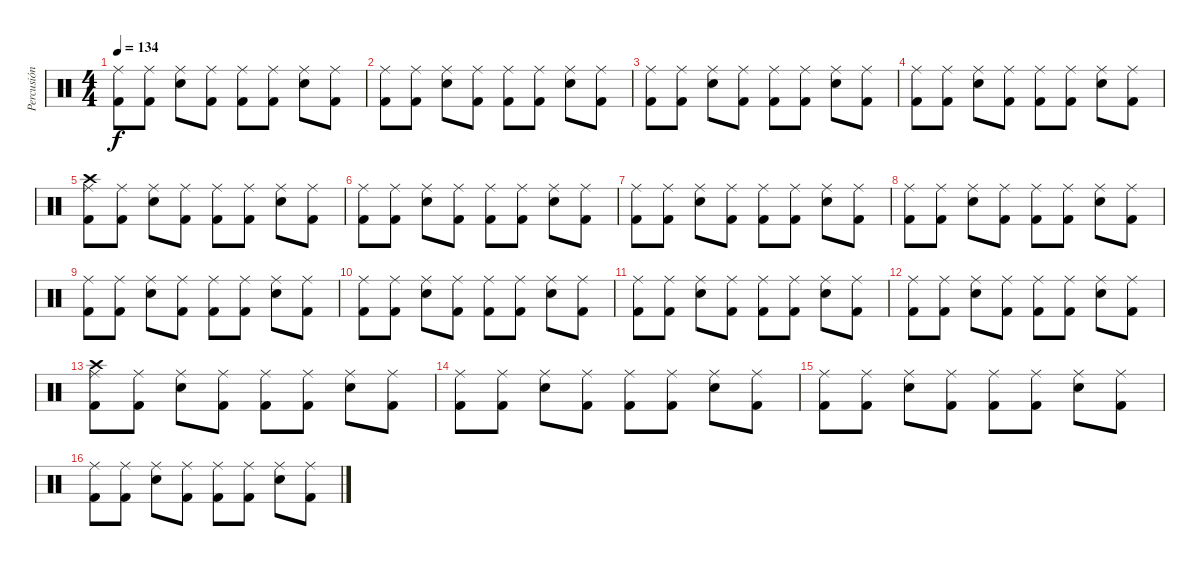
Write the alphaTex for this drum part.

\track ("Percusión" "Percusión") {instrument percussion}
\staff {score}
\articulation defaults
\ts (4 4)
\tempo 134
\clef neutral
\ks c
("Ride (middle)" "Kick (hit) 2").8{dy f} ("Ride (middle)" "Kick (hit) 2").8 ("Ride (middle)" "Snare (hit) 2").8 ("Ride (middle)" "Kick (hit) 2").8 ("Ride (middle)" "Kick (hit) 2").8 ("Ride (middle)" "Kick (hit) 2").8 ("Ride (middle)" "Snare (hit) 2").8 ("Ride (middle)" "Kick (hit) 2").8 |
("Ride (middle)" "Kick (hit) 2").8 ("Ride (middle)" "Kick (hit) 2").8 ("Ride (middle)" "Snare (hit) 2").8 ("Ride (middle)" "Kick (hit) 2").8 ("Ride (middle)" "Kick (hit) 2").8 ("Ride (middle)" "Kick (hit) 2").8 ("Ride (middle)" "Snare (hit) 2").8 ("Ride (middle)" "Kick (hit) 2").8 |
("Ride (middle)" "Kick (hit) 2").8 ("Ride (middle)" "Kick (hit) 2").8 ("Ride (middle)" "Snare (hit) 2").8 ("Ride (middle)" "Kick (hit) 2").8 ("Ride (middle)" "Kick (hit) 2").8 ("Ride (middle)" "Kick (hit) 2").8 ("Ride (middle)" "Snare (hit) 2").8 ("Ride (middle)" "Kick (hit) 2").8 |
("Ride (middle)" "Kick (hit) 2").8 ("Ride (middle)" "Kick (hit) 2").8 ("Ride (middle)" "Snare (hit) 2").8 ("Ride (middle)" "Kick (hit) 2").8 ("Ride (middle)" "Kick (hit) 2").8 ("Ride (middle)" "Kick (hit) 2").8 ("Ride (middle)" "Snare (hit) 2").8 ("Ride (middle)" "Kick (hit) 2").8 |
("Crash high (hit)" "Ride (middle)" "Kick (hit) 2").8 ("Ride (middle)" "Kick (hit) 2").8 ("Ride (middle)" "Snare (hit) 2").8 ("Ride (middle)" "Kick (hit) 2").8 ("Ride (middle)" "Kick (hit) 2").8 ("Ride (middle)" "Kick (hit) 2").8 ("Ride (middle)" "Snare (hit) 2").8 ("Ride (middle)" "Kick (hit) 2").8 |
("Ride (middle)" "Kick (hit) 2").8 ("Ride (middle)" "Kick (hit) 2").8 ("Ride (middle)" "Snare (hit) 2").8 ("Ride (middle)" "Kick (hit) 2").8 ("Ride (middle)" "Kick (hit) 2").8 ("Ride (middle)" "Kick (hit) 2").8 ("Ride (middle)" "Snare (hit) 2").8 ("Ride (middle)" "Kick (hit) 2").8 |
("Ride (middle)" "Kick (hit) 2").8 ("Ride (middle)" "Kick (hit) 2").8 ("Ride (middle)" "Snare (hit) 2").8 ("Ride (middle)" "Kick (hit) 2").8 ("Ride (middle)" "Kick (hit) 2").8 ("Ride (middle)" "Kick (hit) 2").8 ("Ride (middle)" "Snare (hit) 2").8 ("Ride (middle)" "Kick (hit) 2").8 |
("Ride (middle)" "Kick (hit) 2").8 ("Ride (middle)" "Kick (hit) 2").8 ("Ride (middle)" "Snare (hit) 2").8 ("Ride (middle)" "Kick (hit) 2").8 ("Ride (middle)" "Kick (hit) 2").8 ("Ride (middle)" "Kick (hit) 2").8 ("Ride (middle)" "Snare (hit) 2").8 ("Ride (middle)" "Kick (hit) 2").8 |
("Ride (middle)" "Kick (hit) 2").8 ("Ride (middle)" "Kick (hit) 2").8 ("Ride (middle)" "Snare (hit) 2").8 ("Ride (middle)" "Kick (hit) 2").8 ("Ride (middle)" "Kick (hit) 2").8 ("Ride (middle)" "Kick (hit) 2").8 ("Ride (middle)" "Snare (hit) 2").8 ("Ride (middle)" "Kick (hit) 2").8 |
("Ride (middle)" "Kick (hit) 2").8 ("Ride (middle)" "Kick (hit) 2").8 ("Ride (middle)" "Snare (hit) 2").8 ("Ride (middle)" "Kick (hit) 2").8 ("Ride (middle)" "Kick (hit) 2").8 ("Ride (middle)" "Kick (hit) 2").8 ("Ride (middle)" "Snare (hit) 2").8 ("Ride (middle)" "Kick (hit) 2").8 |
("Ride (middle)" "Kick (hit) 2").8 ("Ride (middle)" "Kick (hit) 2").8 ("Ride (middle)" "Snare (hit) 2").8 ("Ride (middle)" "Kick (hit) 2").8 ("Ride (middle)" "Kick (hit) 2").8 ("Ride (middle)" "Kick (hit) 2").8 ("Ride (middle)" "Snare (hit) 2").8 ("Ride (middle)" "Kick (hit) 2").8 |
("Ride (middle)" "Kick (hit) 2").8 ("Ride (middle)" "Kick (hit) 2").8 ("Ride (middle)" "Snare (hit) 2").8 ("Ride (middle)" "Kick (hit) 2").8 ("Ride (middle)" "Kick (hit) 2").8 ("Ride (middle)" "Kick (hit) 2").8 ("Ride (middle)" "Snare (hit) 2").8 ("Ride (middle)" "Kick (hit) 2").8 |
("Crash high (hit)" "Ride (middle)" "Kick (hit) 2").8 ("Ride (middle)" "Kick (hit) 2").8 ("Ride (middle)" "Snare (hit) 2").8 ("Ride (middle)" "Kick (hit) 2").8 ("Ride (middle)" "Kick (hit) 2").8 ("Ride (middle)" "Kick (hit) 2").8 ("Ride (middle)" "Snare (hit) 2").8 ("Ride (middle)" "Kick (hit) 2").8 |
("Ride (middle)" "Kick (hit) 2").8 ("Ride (middle)" "Kick (hit) 2").8 ("Ride (middle)" "Snare (hit) 2").8 ("Ride (middle)" "Kick (hit) 2").8 ("Ride (middle)" "Kick (hit) 2").8 ("Ride (middle)" "Kick (hit) 2").8 ("Ride (middle)" "Snare (hit) 2").8 ("Ride (middle)" "Kick (hit) 2").8 |
("Ride (middle)" "Kick (hit) 2").8 ("Ride (middle)" "Kick (hit) 2").8 ("Ride (middle)" "Snare (hit) 2").8 ("Ride (middle)" "Kick (hit) 2").8 ("Ride (middle)" "Kick (hit) 2").8 ("Ride (middle)" "Kick (hit) 2").8 ("Ride (middle)" "Snare (hit) 2").8 ("Ride (middle)" "Kick (hit) 2").8 |
("Ride (middle)" "Kick (hit) 2").8 ("Ride (middle)" "Kick (hit) 2").8 ("Ride (middle)" "Snare (hit) 2").8 ("Ride (middle)" "Kick (hit) 2").8 ("Ride (middle)" "Kick (hit) 2").8 ("Ride (middle)" "Kick (hit) 2").8 ("Ride (middle)" "Snare (hit) 2").8 ("Ride (middle)" "Kick (hit) 2").8
